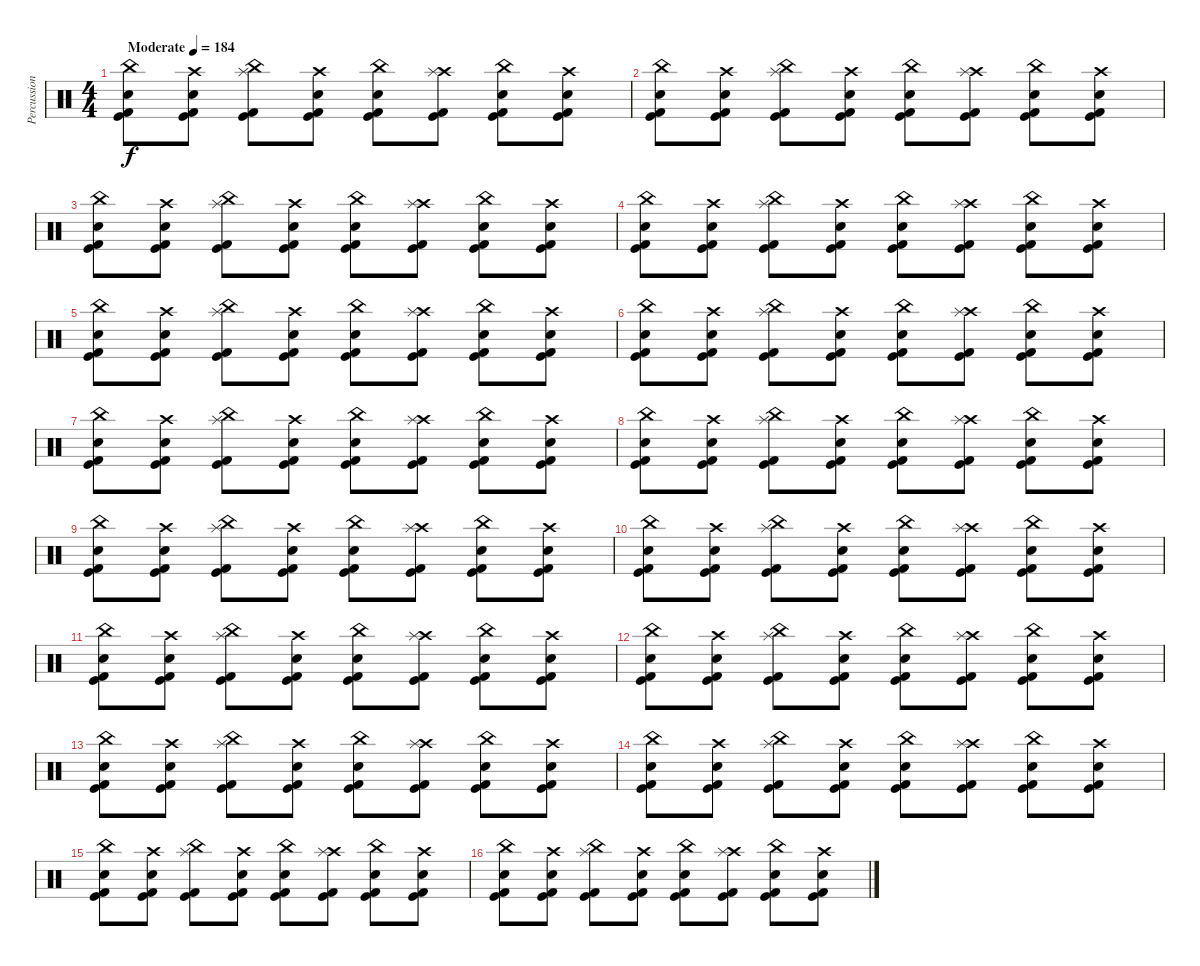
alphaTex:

\track ("Percussion" "Percussion") {solo instrument percussion}
\staff {score}
\articulation defaults
\ts (4 4)
\tempo (184 "Moderate")
\clef neutral
\ks c
("China (hit)" "Kick (hit)" "Snare (hit) 2" "Kick (hit) 2").8{dy f} ("Crash high (hit)" "Kick (hit)" "Snare (hit) 2" "Kick (hit) 2").8 ("China (hit)" "Kick (hit)" "Splash (hit)" "Kick (hit) 2").8 ("Crash high (hit)" "Kick (hit)" "Snare (hit) 2" "Kick (hit) 2").8 ("China (hit)" "Kick (hit)" "Snare (hit) 2" "Kick (hit) 2").8 ("Crash high (hit)" "Kick (hit)" "Splash (hit)" "Kick (hit) 2").8 ("China (hit)" "Kick (hit)" "Snare (hit) 2" "Kick (hit) 2").8 ("Crash high (hit)" "Kick (hit)" "Snare (hit) 2" "Kick (hit) 2").8 |
("China (hit)" "Kick (hit)" "Snare (hit) 2" "Kick (hit) 2").8 ("Crash high (hit)" "Kick (hit)" "Snare (hit) 2" "Kick (hit) 2").8 ("China (hit)" "Kick (hit)" "Splash (hit)" "Kick (hit) 2").8 ("Crash high (hit)" "Kick (hit)" "Snare (hit) 2" "Kick (hit) 2").8 ("China (hit)" "Kick (hit)" "Snare (hit) 2" "Kick (hit) 2").8 ("Crash high (hit)" "Kick (hit)" "Splash (hit)" "Kick (hit) 2").8 ("China (hit)" "Kick (hit)" "Snare (hit) 2" "Kick (hit) 2").8 ("Crash high (hit)" "Kick (hit)" "Snare (hit) 2" "Kick (hit) 2").8 |
("China (hit)" "Kick (hit)" "Snare (hit) 2" "Kick (hit) 2").8 ("Crash high (hit)" "Kick (hit)" "Snare (hit) 2" "Kick (hit) 2").8 ("China (hit)" "Kick (hit)" "Splash (hit)" "Kick (hit) 2").8 ("Crash high (hit)" "Kick (hit)" "Snare (hit) 2" "Kick (hit) 2").8 ("China (hit)" "Kick (hit)" "Snare (hit) 2" "Kick (hit) 2").8 ("Crash high (hit)" "Kick (hit)" "Splash (hit)" "Kick (hit) 2").8 ("China (hit)" "Kick (hit)" "Snare (hit) 2" "Kick (hit) 2").8 ("Crash high (hit)" "Kick (hit)" "Snare (hit) 2" "Kick (hit) 2").8 |
("China (hit)" "Kick (hit)" "Snare (hit) 2" "Kick (hit) 2").8 ("Crash high (hit)" "Kick (hit)" "Snare (hit) 2" "Kick (hit) 2").8 ("China (hit)" "Kick (hit)" "Splash (hit)" "Kick (hit) 2").8 ("Crash high (hit)" "Kick (hit)" "Snare (hit) 2" "Kick (hit) 2").8 ("China (hit)" "Kick (hit)" "Snare (hit) 2" "Kick (hit) 2").8 ("Crash high (hit)" "Kick (hit)" "Splash (hit)" "Kick (hit) 2").8 ("China (hit)" "Kick (hit)" "Snare (hit) 2" "Kick (hit) 2").8 ("Crash high (hit)" "Kick (hit)" "Snare (hit) 2" "Kick (hit) 2").8 |
("China (hit)" "Kick (hit)" "Snare (hit) 2" "Kick (hit) 2").8 ("Crash high (hit)" "Kick (hit)" "Snare (hit) 2" "Kick (hit) 2").8 ("China (hit)" "Kick (hit)" "Splash (hit)" "Kick (hit) 2").8 ("Crash high (hit)" "Kick (hit)" "Snare (hit) 2" "Kick (hit) 2").8 ("China (hit)" "Kick (hit)" "Snare (hit) 2" "Kick (hit) 2").8 ("Crash high (hit)" "Kick (hit)" "Splash (hit)" "Kick (hit) 2").8 ("China (hit)" "Kick (hit)" "Snare (hit) 2" "Kick (hit) 2").8 ("Crash high (hit)" "Kick (hit)" "Snare (hit) 2" "Kick (hit) 2").8 |
("China (hit)" "Kick (hit)" "Snare (hit) 2" "Kick (hit) 2").8 ("Crash high (hit)" "Kick (hit)" "Snare (hit) 2" "Kick (hit) 2").8 ("China (hit)" "Kick (hit)" "Splash (hit)" "Kick (hit) 2").8 ("Crash high (hit)" "Kick (hit)" "Snare (hit) 2" "Kick (hit) 2").8 ("China (hit)" "Kick (hit)" "Snare (hit) 2" "Kick (hit) 2").8 ("Crash high (hit)" "Kick (hit)" "Splash (hit)" "Kick (hit) 2").8 ("China (hit)" "Kick (hit)" "Snare (hit) 2" "Kick (hit) 2").8 ("Crash high (hit)" "Kick (hit)" "Snare (hit) 2" "Kick (hit) 2").8 |
("China (hit)" "Kick (hit)" "Snare (hit) 2" "Kick (hit) 2").8 ("Crash high (hit)" "Kick (hit)" "Snare (hit) 2" "Kick (hit) 2").8 ("China (hit)" "Kick (hit)" "Splash (hit)" "Kick (hit) 2").8 ("Crash high (hit)" "Kick (hit)" "Snare (hit) 2" "Kick (hit) 2").8 ("China (hit)" "Kick (hit)" "Snare (hit) 2" "Kick (hit) 2").8 ("Crash high (hit)" "Kick (hit)" "Splash (hit)" "Kick (hit) 2").8 ("China (hit)" "Kick (hit)" "Snare (hit) 2" "Kick (hit) 2").8 ("Crash high (hit)" "Kick (hit)" "Snare (hit) 2" "Kick (hit) 2").8 |
("China (hit)" "Kick (hit)" "Snare (hit) 2" "Kick (hit) 2").8 ("Crash high (hit)" "Kick (hit)" "Snare (hit) 2" "Kick (hit) 2").8 ("China (hit)" "Kick (hit)" "Splash (hit)" "Kick (hit) 2").8 ("Crash high (hit)" "Kick (hit)" "Snare (hit) 2" "Kick (hit) 2").8 ("China (hit)" "Kick (hit)" "Snare (hit) 2" "Kick (hit) 2").8 ("Crash high (hit)" "Kick (hit)" "Splash (hit)" "Kick (hit) 2").8 ("China (hit)" "Kick (hit)" "Snare (hit) 2" "Kick (hit) 2").8 ("Crash high (hit)" "Kick (hit)" "Snare (hit) 2" "Kick (hit) 2").8 |
("China (hit)" "Kick (hit)" "Snare (hit) 2" "Kick (hit) 2").8 ("Crash high (hit)" "Kick (hit)" "Snare (hit) 2" "Kick (hit) 2").8 ("China (hit)" "Kick (hit)" "Splash (hit)" "Kick (hit) 2").8 ("Crash high (hit)" "Kick (hit)" "Snare (hit) 2" "Kick (hit) 2").8 ("China (hit)" "Kick (hit)" "Snare (hit) 2" "Kick (hit) 2").8 ("Crash high (hit)" "Kick (hit)" "Splash (hit)" "Kick (hit) 2").8 ("China (hit)" "Kick (hit)" "Snare (hit) 2" "Kick (hit) 2").8 ("Crash high (hit)" "Kick (hit)" "Snare (hit) 2" "Kick (hit) 2").8 |
("China (hit)" "Kick (hit)" "Snare (hit) 2" "Kick (hit) 2").8 ("Crash high (hit)" "Kick (hit)" "Snare (hit) 2" "Kick (hit) 2").8 ("China (hit)" "Kick (hit)" "Splash (hit)" "Kick (hit) 2").8 ("Crash high (hit)" "Kick (hit)" "Snare (hit) 2" "Kick (hit) 2").8 ("China (hit)" "Kick (hit)" "Snare (hit) 2" "Kick (hit) 2").8 ("Crash high (hit)" "Kick (hit)" "Splash (hit)" "Kick (hit) 2").8 ("China (hit)" "Kick (hit)" "Snare (hit) 2" "Kick (hit) 2").8 ("Crash high (hit)" "Kick (hit)" "Snare (hit) 2" "Kick (hit) 2").8 |
("China (hit)" "Kick (hit)" "Snare (hit) 2" "Kick (hit) 2").8 ("Crash high (hit)" "Kick (hit)" "Snare (hit) 2" "Kick (hit) 2").8 ("China (hit)" "Kick (hit)" "Splash (hit)" "Kick (hit) 2").8 ("Crash high (hit)" "Kick (hit)" "Snare (hit) 2" "Kick (hit) 2").8 ("China (hit)" "Kick (hit)" "Snare (hit) 2" "Kick (hit) 2").8 ("Crash high (hit)" "Kick (hit)" "Splash (hit)" "Kick (hit) 2").8 ("China (hit)" "Kick (hit)" "Snare (hit) 2" "Kick (hit) 2").8 ("Crash high (hit)" "Kick (hit)" "Snare (hit) 2" "Kick (hit) 2").8 |
("China (hit)" "Kick (hit)" "Snare (hit) 2" "Kick (hit) 2").8 ("Crash high (hit)" "Kick (hit)" "Snare (hit) 2" "Kick (hit) 2").8 ("China (hit)" "Kick (hit)" "Splash (hit)" "Kick (hit) 2").8 ("Crash high (hit)" "Kick (hit)" "Snare (hit) 2" "Kick (hit) 2").8 ("China (hit)" "Kick (hit)" "Snare (hit) 2" "Kick (hit) 2").8 ("Crash high (hit)" "Kick (hit)" "Splash (hit)" "Kick (hit) 2").8 ("China (hit)" "Kick (hit)" "Snare (hit) 2" "Kick (hit) 2").8 ("Crash high (hit)" "Kick (hit)" "Snare (hit) 2" "Kick (hit) 2").8 |
("China (hit)" "Kick (hit)" "Snare (hit) 2" "Kick (hit) 2").8 ("Crash high (hit)" "Kick (hit)" "Snare (hit) 2" "Kick (hit) 2").8 ("China (hit)" "Kick (hit)" "Splash (hit)" "Kick (hit) 2").8 ("Crash high (hit)" "Kick (hit)" "Snare (hit) 2" "Kick (hit) 2").8 ("China (hit)" "Kick (hit)" "Snare (hit) 2" "Kick (hit) 2").8 ("Crash high (hit)" "Kick (hit)" "Splash (hit)" "Kick (hit) 2").8 ("China (hit)" "Kick (hit)" "Snare (hit) 2" "Kick (hit) 2").8 ("Crash high (hit)" "Kick (hit)" "Snare (hit) 2" "Kick (hit) 2").8 |
("China (hit)" "Kick (hit)" "Snare (hit) 2" "Kick (hit) 2").8 ("Crash high (hit)" "Kick (hit)" "Snare (hit) 2" "Kick (hit) 2").8 ("China (hit)" "Kick (hit)" "Splash (hit)" "Kick (hit) 2").8 ("Crash high (hit)" "Kick (hit)" "Snare (hit) 2" "Kick (hit) 2").8 ("China (hit)" "Kick (hit)" "Snare (hit) 2" "Kick (hit) 2").8 ("Crash high (hit)" "Kick (hit)" "Splash (hit)" "Kick (hit) 2").8 ("China (hit)" "Kick (hit)" "Snare (hit) 2" "Kick (hit) 2").8 ("Crash high (hit)" "Kick (hit)" "Snare (hit) 2" "Kick (hit) 2").8 |
("China (hit)" "Kick (hit)" "Snare (hit) 2" "Kick (hit) 2").8 ("Crash high (hit)" "Kick (hit)" "Snare (hit) 2" "Kick (hit) 2").8 ("China (hit)" "Kick (hit)" "Splash (hit)" "Kick (hit) 2").8 ("Crash high (hit)" "Kick (hit)" "Snare (hit) 2" "Kick (hit) 2").8 ("China (hit)" "Kick (hit)" "Snare (hit) 2" "Kick (hit) 2").8 ("Crash high (hit)" "Kick (hit)" "Splash (hit)" "Kick (hit) 2").8 ("China (hit)" "Kick (hit)" "Snare (hit) 2" "Kick (hit) 2").8 ("Crash high (hit)" "Kick (hit)" "Snare (hit) 2" "Kick (hit) 2").8 |
("China (hit)" "Kick (hit)" "Snare (hit) 2" "Kick (hit) 2").8 ("Crash high (hit)" "Kick (hit)" "Snare (hit) 2" "Kick (hit) 2").8 ("China (hit)" "Kick (hit)" "Splash (hit)" "Kick (hit) 2").8 ("Crash high (hit)" "Kick (hit)" "Snare (hit) 2" "Kick (hit) 2").8 ("China (hit)" "Kick (hit)" "Snare (hit) 2" "Kick (hit) 2").8 ("Crash high (hit)" "Kick (hit)" "Splash (hit)" "Kick (hit) 2").8 ("China (hit)" "Kick (hit)" "Snare (hit) 2" "Kick (hit) 2").8 ("Crash high (hit)" "Kick (hit)" "Snare (hit) 2" "Kick (hit) 2").8
